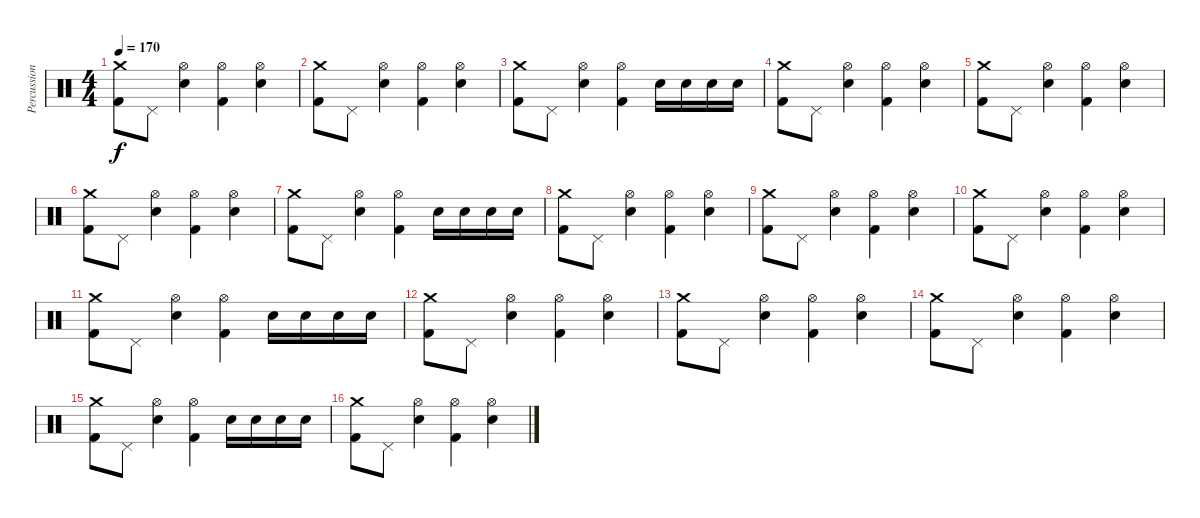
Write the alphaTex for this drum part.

\track ("Percussion" "Percussion") {instrument percussion}
\staff {score}
\articulation defaults
\ts (4 4)
\tempo 170
\clef neutral
\ks c
("Crash medium (hit)" "Kick (hit) 2").8{dy f} "Pedal Hi-Hat (hit)".8 ("Hi-Hat (open)" "Electric Snare (hit)").4 ("Hi-Hat (open)" "Kick (hit) 2").4 ("Hi-Hat (open)" "Electric Snare (hit)").4 |
("Crash medium (hit)" "Kick (hit) 2").8 "Pedal Hi-Hat (hit)".8 ("Hi-Hat (open)" "Electric Snare (hit)").4 ("Hi-Hat (open)" "Kick (hit) 2").4 ("Hi-Hat (open)" "Electric Snare (hit)").4 |
("Crash medium (hit)" "Kick (hit) 2").8 "Pedal Hi-Hat (hit)".8 ("Hi-Hat (open)" "Electric Snare (hit)").4 ("Hi-Hat (open)" "Kick (hit) 2").4 "Electric Snare (hit)".16 "Electric Snare (hit)".16 "Electric Snare (hit)".16 "Electric Snare (hit)".16 |
("Crash medium (hit)" "Kick (hit) 2").8 "Pedal Hi-Hat (hit)".8 ("Hi-Hat (open)" "Electric Snare (hit)").4 ("Hi-Hat (open)" "Kick (hit) 2").4 ("Hi-Hat (open)" "Electric Snare (hit)").4 |
("Crash medium (hit)" "Kick (hit) 2").8 "Pedal Hi-Hat (hit)".8 ("Hi-Hat (open)" "Electric Snare (hit)").4 ("Hi-Hat (open)" "Kick (hit) 2").4 ("Hi-Hat (open)" "Electric Snare (hit)").4 |
("Crash medium (hit)" "Kick (hit) 2").8 "Pedal Hi-Hat (hit)".8 ("Hi-Hat (open)" "Electric Snare (hit)").4 ("Hi-Hat (open)" "Kick (hit) 2").4 ("Hi-Hat (open)" "Electric Snare (hit)").4 |
("Crash medium (hit)" "Kick (hit) 2").8 "Pedal Hi-Hat (hit)".8 ("Hi-Hat (open)" "Electric Snare (hit)").4 ("Hi-Hat (open)" "Kick (hit) 2").4 "Electric Snare (hit)".16 "Electric Snare (hit)".16 "Electric Snare (hit)".16 "Electric Snare (hit)".16 |
("Crash medium (hit)" "Kick (hit) 2").8 "Pedal Hi-Hat (hit)".8 ("Hi-Hat (open)" "Electric Snare (hit)").4 ("Hi-Hat (open)" "Kick (hit) 2").4 ("Hi-Hat (open)" "Electric Snare (hit)").4 |
("Crash medium (hit)" "Kick (hit) 2").8 "Pedal Hi-Hat (hit)".8 ("Hi-Hat (open)" "Electric Snare (hit)").4 ("Hi-Hat (open)" "Kick (hit) 2").4 ("Hi-Hat (open)" "Electric Snare (hit)").4 |
("Crash medium (hit)" "Kick (hit) 2").8 "Pedal Hi-Hat (hit)".8 ("Hi-Hat (open)" "Electric Snare (hit)").4 ("Hi-Hat (open)" "Kick (hit) 2").4 ("Hi-Hat (open)" "Electric Snare (hit)").4 |
("Crash medium (hit)" "Kick (hit) 2").8 "Pedal Hi-Hat (hit)".8 ("Hi-Hat (open)" "Electric Snare (hit)").4 ("Hi-Hat (open)" "Kick (hit) 2").4 "Electric Snare (hit)".16 "Electric Snare (hit)".16 "Electric Snare (hit)".16 "Electric Snare (hit)".16 |
("Crash medium (hit)" "Kick (hit) 2").8 "Pedal Hi-Hat (hit)".8 ("Hi-Hat (open)" "Electric Snare (hit)").4 ("Hi-Hat (open)" "Kick (hit) 2").4 ("Hi-Hat (open)" "Electric Snare (hit)").4 |
("Crash medium (hit)" "Kick (hit) 2").8 "Pedal Hi-Hat (hit)".8 ("Hi-Hat (open)" "Electric Snare (hit)").4 ("Hi-Hat (open)" "Kick (hit) 2").4 ("Hi-Hat (open)" "Electric Snare (hit)").4 |
("Crash medium (hit)" "Kick (hit) 2").8 "Pedal Hi-Hat (hit)".8 ("Hi-Hat (open)" "Electric Snare (hit)").4 ("Hi-Hat (open)" "Kick (hit) 2").4 ("Hi-Hat (open)" "Electric Snare (hit)").4 |
("Crash medium (hit)" "Kick (hit) 2").8 "Pedal Hi-Hat (hit)".8 ("Hi-Hat (open)" "Electric Snare (hit)").4 ("Hi-Hat (open)" "Kick (hit) 2").4 "Electric Snare (hit)".16 "Electric Snare (hit)".16 "Electric Snare (hit)".16 "Electric Snare (hit)".16 |
("Crash medium (hit)" "Kick (hit) 2").8 "Pedal Hi-Hat (hit)".8 ("Hi-Hat (open)" "Electric Snare (hit)").4 ("Hi-Hat (open)" "Kick (hit) 2").4 ("Hi-Hat (open)" "Electric Snare (hit)").4
